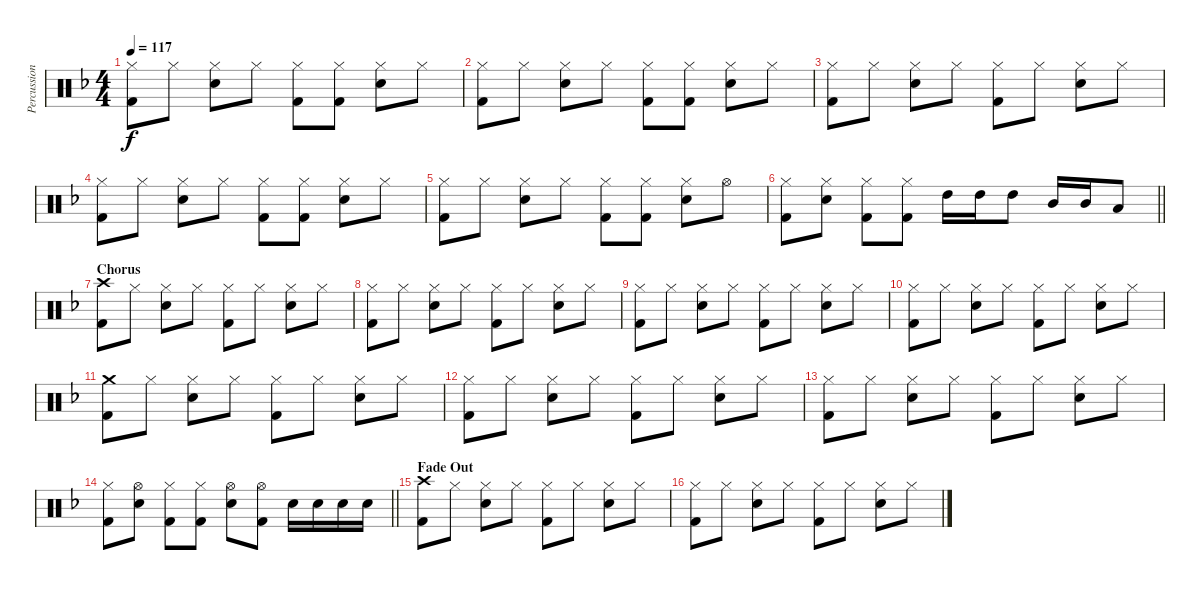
\track ("Percussion" "Percussion") {instrument percussion}
\staff {score}
\articulation defaults
\ts (4 4)
\tempo 117
\clef neutral
\ks f
("Hi-Hat (closed)" "Kick (hit) 2").8{dy f} "Hi-Hat (closed)".8 ("Hi-Hat (closed)" "Electric Snare (hit)").8 "Hi-Hat (closed)".8 ("Hi-Hat (closed)" "Kick (hit) 2").8 ("Hi-Hat (closed)" "Kick (hit) 2").8 ("Hi-Hat (closed)" "Electric Snare (hit)").8 "Hi-Hat (closed)".8 |
("Hi-Hat (closed)" "Kick (hit) 2").8 "Hi-Hat (closed)".8 ("Hi-Hat (closed)" "Electric Snare (hit)").8 "Hi-Hat (closed)".8 ("Hi-Hat (closed)" "Kick (hit) 2").8 ("Hi-Hat (closed)" "Kick (hit) 2").8 ("Hi-Hat (closed)" "Electric Snare (hit)").8 "Hi-Hat (closed)".8 |
("Hi-Hat (closed)" "Kick (hit) 2").8 "Hi-Hat (closed)".8 ("Hi-Hat (closed)" "Electric Snare (hit)").8 "Hi-Hat (closed)".8 ("Hi-Hat (closed)" "Kick (hit) 2").8 "Hi-Hat (closed)".8 ("Hi-Hat (closed)" "Electric Snare (hit)").8 "Hi-Hat (closed)".8 |
("Hi-Hat (closed)" "Kick (hit) 2").8 "Hi-Hat (closed)".8 ("Hi-Hat (closed)" "Electric Snare (hit)").8 "Hi-Hat (closed)".8 ("Hi-Hat (closed)" "Kick (hit) 2").8 ("Hi-Hat (closed)" "Kick (hit) 2").8 ("Hi-Hat (closed)" "Electric Snare (hit)").8 "Hi-Hat (closed)".8 |
("Hi-Hat (closed)" "Kick (hit) 2").8 "Hi-Hat (closed)".8 ("Hi-Hat (closed)" "Electric Snare (hit)").8 "Hi-Hat (closed)".8 ("Hi-Hat (closed)" "Kick (hit) 2").8 ("Hi-Hat (closed)" "Kick (hit) 2").8 ("Hi-Hat (closed)" "Electric Snare (hit)").8 "Hi-Hat (open)".8 |
\barLineRight lightlight
("Hi-Hat (closed)" "Kick (hit) 2").8 ("Hi-Hat (closed)" "Electric Snare (hit)").8 ("Hi-Hat (closed)" "Kick (hit) 2").8 ("Hi-Hat (closed)" "Kick (hit) 2").8 "High Tom (hit)".16 "High Tom (hit)".16 "High Tom (hit)".8 "Mid Tom (hit)".16 "Mid Tom (hit)".16 "Low Tom (hit)".8 |
\section ("" "Chorus")
("Crash high (hit)" "Kick (hit) 2").8 "Hi-Hat (closed)".8 ("Hi-Hat (closed)" "Electric Snare (hit)").8 "Hi-Hat (closed)".8 ("Hi-Hat (closed)" "Kick (hit) 2").8 "Hi-Hat (closed)".8 ("Hi-Hat (closed)" "Electric Snare (hit)").8 "Hi-Hat (closed)".8 |
("Hi-Hat (closed)" "Kick (hit) 2").8 "Hi-Hat (closed)".8 ("Hi-Hat (closed)" "Electric Snare (hit)").8 "Hi-Hat (closed)".8 ("Hi-Hat (closed)" "Kick (hit) 2").8 "Hi-Hat (closed)".8 ("Hi-Hat (closed)" "Electric Snare (hit)").8 "Hi-Hat (closed)".8 |
("Hi-Hat (closed)" "Kick (hit) 2").8 "Hi-Hat (closed)".8 ("Hi-Hat (closed)" "Electric Snare (hit)").8 "Hi-Hat (closed)".8 ("Hi-Hat (closed)" "Kick (hit) 2").8 "Hi-Hat (closed)".8 ("Hi-Hat (closed)" "Electric Snare (hit)").8 "Hi-Hat (closed)".8 |
("Hi-Hat (closed)" "Kick (hit) 2").8 "Hi-Hat (closed)".8 ("Hi-Hat (closed)" "Electric Snare (hit)").8 "Hi-Hat (closed)".8 ("Hi-Hat (closed)" "Kick (hit) 2").8 "Hi-Hat (closed)".8 ("Hi-Hat (closed)" "Electric Snare (hit)").8 "Hi-Hat (closed)".8 |
("Crash medium (hit)" "Kick (hit) 2").8 "Hi-Hat (closed)".8 ("Hi-Hat (closed)" "Electric Snare (hit)").8 "Hi-Hat (closed)".8 ("Hi-Hat (closed)" "Kick (hit) 2").8 "Hi-Hat (closed)".8 ("Hi-Hat (closed)" "Electric Snare (hit)").8 "Hi-Hat (closed)".8 |
("Hi-Hat (closed)" "Kick (hit) 2").8 "Hi-Hat (closed)".8 ("Hi-Hat (closed)" "Electric Snare (hit)").8 "Hi-Hat (closed)".8 ("Hi-Hat (closed)" "Kick (hit) 2").8 "Hi-Hat (closed)".8 ("Hi-Hat (closed)" "Electric Snare (hit)").8 "Hi-Hat (closed)".8 |
("Hi-Hat (closed)" "Kick (hit) 2").8 "Hi-Hat (closed)".8 ("Hi-Hat (closed)" "Electric Snare (hit)").8 "Hi-Hat (closed)".8 ("Hi-Hat (closed)" "Kick (hit) 2").8 "Hi-Hat (closed)".8 ("Hi-Hat (closed)" "Electric Snare (hit)").8 "Hi-Hat (closed)".8 |
\barLineRight lightlight
("Hi-Hat (closed)" "Kick (hit) 2").8 ("Hi-Hat (open)" "Electric Snare (hit)").8 ("Hi-Hat (closed)" "Kick (hit) 2").8 ("Hi-Hat (closed)" "Kick (hit) 2").8 ("Hi-Hat (open)" "Electric Snare (hit)").8 ("Hi-Hat (open)" "Kick (hit) 2").8 "Electric Snare (hit)".16 "Electric Snare (hit)".16 "Electric Snare (hit)".16 "Electric Snare (hit)".16 |
\section ("" "Fade Out")
("Crash high (hit)" "Kick (hit) 2").8 "Hi-Hat (closed)".8 ("Hi-Hat (closed)" "Electric Snare (hit)").8 "Hi-Hat (closed)".8 ("Hi-Hat (closed)" "Kick (hit) 2").8 "Hi-Hat (closed)".8 ("Hi-Hat (closed)" "Electric Snare (hit)").8 "Hi-Hat (closed)".8 |
("Hi-Hat (closed)" "Kick (hit) 2").8 "Hi-Hat (closed)".8 ("Hi-Hat (closed)" "Electric Snare (hit)").8 "Hi-Hat (closed)".8 ("Hi-Hat (closed)" "Kick (hit) 2").8 "Hi-Hat (closed)".8 ("Hi-Hat (closed)" "Electric Snare (hit)").8 "Hi-Hat (closed)".8
